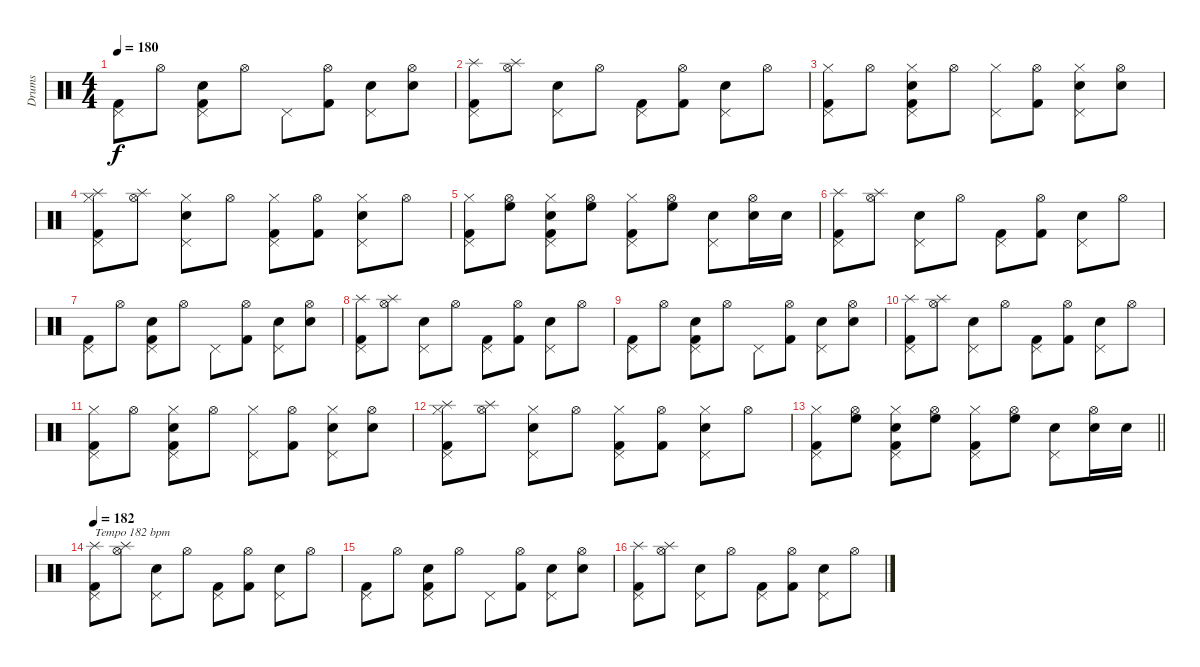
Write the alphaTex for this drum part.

\track ("Drums" "Drums") {instrument percussion}
\staff {score}
\articulation defaults
\ts (4 4)
\tempo 180
\clef neutral
\ks c
("Pedal Hi-Hat (hit)" "Kick (hit) 2").8{dy f} "Hi-Hat (open)".8 ("Pedal Hi-Hat (hit)" "Snare (hit) 2" "Kick (hit) 2").8 "Hi-Hat (open)".8 "Pedal Hi-Hat (hit)".8 ("Hi-Hat (open)" "Kick (hit) 2").8 ("Pedal Hi-Hat (hit)" "Snare (hit) 2").8 ("Hi-Hat (open)" "Snare (hit) 2").8 |
("Pedal Hi-Hat (hit)" "Splash (hit)" "Kick (hit) 2").8 ("Hi-Hat (open)" "Splash (hit)").8 ("Pedal Hi-Hat (hit)" "Snare (hit) 2").8 "Hi-Hat (open)".8 ("Pedal Hi-Hat (hit)" "Kick (hit) 2").8 ("Hi-Hat (open)" "Kick (hit) 2").8 ("Pedal Hi-Hat (hit)" "Snare (hit) 2").8 "Hi-Hat (open)".8 |
("Pedal Hi-Hat (hit)" "Hi-Hat (closed)" "Kick (hit) 2").8 "Hi-Hat (open)".8 ("Pedal Hi-Hat (hit)" "Hi-Hat (closed)" "Snare (hit) 2" "Kick (hit) 2").8 "Hi-Hat (open)".8 ("Pedal Hi-Hat (hit)" "Hi-Hat (closed)").8 ("Hi-Hat (open)" "Kick (hit) 2").8 ("Pedal Hi-Hat (hit)" "Hi-Hat (closed)" "Snare (hit) 2").8 ("Hi-Hat (open)" "Snare (hit) 2").8 |
("Pedal Hi-Hat (hit)" "Hi-Hat (closed)" "Splash (hit)" "Kick (hit) 2").8 ("Hi-Hat (open)" "Splash (hit)").8 ("Pedal Hi-Hat (hit)" "Hi-Hat (closed)" "Snare (hit) 2").8 "Hi-Hat (open)".8 ("Pedal Hi-Hat (hit)" "Hi-Hat (closed)" "Kick (hit) 2").8 ("Hi-Hat (open)" "Kick (hit) 2").8 ("Pedal Hi-Hat (hit)" "Hi-Hat (closed)" "Snare (hit) 2").8 "Hi-Hat (open)".8 |
("Pedal Hi-Hat (hit)" "Hi-Hat (closed)" "Kick (hit) 2").8 ("Hi-Hat (open)" "High Floor Tom (hit)").8 ("Pedal Hi-Hat (hit)" "Hi-Hat (closed)" "Snare (hit) 2" "Kick (hit) 2").8 ("Hi-Hat (open)" "High Floor Tom (hit)").8 ("Pedal Hi-Hat (hit)" "Hi-Hat (closed)" "Kick (hit) 2").8 ("Hi-Hat (open)" "High Floor Tom (hit)").8 ("Pedal Hi-Hat (hit)" "Snare (hit) 2").8 ("Hi-Hat (open)" "Snare (hit) 2").16 "Snare (hit) 2".16 |
("Pedal Hi-Hat (hit)" "Splash (hit)" "Kick (hit) 2").8 ("Hi-Hat (open)" "Splash (hit)").8 ("Pedal Hi-Hat (hit)" "Snare (hit) 2").8 "Hi-Hat (open)".8 ("Pedal Hi-Hat (hit)" "Kick (hit) 2").8 ("Hi-Hat (open)" "Kick (hit) 2").8 ("Pedal Hi-Hat (hit)" "Snare (hit) 2").8 "Hi-Hat (open)".8 |
("Pedal Hi-Hat (hit)" "Kick (hit) 2").8 "Hi-Hat (open)".8 ("Pedal Hi-Hat (hit)" "Snare (hit) 2" "Kick (hit) 2").8 "Hi-Hat (open)".8 "Pedal Hi-Hat (hit)".8 ("Hi-Hat (open)" "Kick (hit) 2").8 ("Pedal Hi-Hat (hit)" "Snare (hit) 2").8 ("Hi-Hat (open)" "Snare (hit) 2").8 |
("Pedal Hi-Hat (hit)" "Splash (hit)" "Kick (hit) 2").8 ("Hi-Hat (open)" "Splash (hit)").8 ("Pedal Hi-Hat (hit)" "Snare (hit) 2").8 "Hi-Hat (open)".8 ("Pedal Hi-Hat (hit)" "Kick (hit) 2").8 ("Hi-Hat (open)" "Kick (hit) 2").8 ("Pedal Hi-Hat (hit)" "Snare (hit) 2").8 "Hi-Hat (open)".8 |
("Pedal Hi-Hat (hit)" "Kick (hit) 2").8 "Hi-Hat (open)".8 ("Pedal Hi-Hat (hit)" "Snare (hit) 2" "Kick (hit) 2").8 "Hi-Hat (open)".8 "Pedal Hi-Hat (hit)".8 ("Hi-Hat (open)" "Kick (hit) 2").8 ("Pedal Hi-Hat (hit)" "Snare (hit) 2").8 ("Hi-Hat (open)" "Snare (hit) 2").8 |
("Pedal Hi-Hat (hit)" "Splash (hit)" "Kick (hit) 2").8 ("Hi-Hat (open)" "Splash (hit)").8 ("Pedal Hi-Hat (hit)" "Snare (hit) 2").8 "Hi-Hat (open)".8 ("Pedal Hi-Hat (hit)" "Kick (hit) 2").8 ("Hi-Hat (open)" "Kick (hit) 2").8 ("Pedal Hi-Hat (hit)" "Snare (hit) 2").8 "Hi-Hat (open)".8 |
("Pedal Hi-Hat (hit)" "Hi-Hat (closed)" "Kick (hit) 2").8 "Hi-Hat (open)".8 ("Pedal Hi-Hat (hit)" "Hi-Hat (closed)" "Snare (hit) 2" "Kick (hit) 2").8 "Hi-Hat (open)".8 ("Pedal Hi-Hat (hit)" "Hi-Hat (closed)").8 ("Hi-Hat (open)" "Kick (hit) 2").8 ("Pedal Hi-Hat (hit)" "Hi-Hat (closed)" "Snare (hit) 2").8 ("Hi-Hat (open)" "Snare (hit) 2").8 |
("Pedal Hi-Hat (hit)" "Hi-Hat (closed)" "Splash (hit)" "Kick (hit) 2").8 ("Hi-Hat (open)" "Splash (hit)").8 ("Pedal Hi-Hat (hit)" "Hi-Hat (closed)" "Snare (hit) 2").8 "Hi-Hat (open)".8 ("Pedal Hi-Hat (hit)" "Hi-Hat (closed)" "Kick (hit) 2").8 ("Hi-Hat (open)" "Kick (hit) 2").8 ("Pedal Hi-Hat (hit)" "Hi-Hat (closed)" "Snare (hit) 2").8 "Hi-Hat (open)".8 |
\barLineRight lightlight
("Pedal Hi-Hat (hit)" "Hi-Hat (closed)" "Kick (hit) 2").8 ("Hi-Hat (open)" "High Floor Tom (hit)").8 ("Pedal Hi-Hat (hit)" "Hi-Hat (closed)" "Snare (hit) 2" "Kick (hit) 2").8 ("Hi-Hat (open)" "High Floor Tom (hit)").8 ("Pedal Hi-Hat (hit)" "Hi-Hat (closed)" "Kick (hit) 2").8 ("Hi-Hat (open)" "High Floor Tom (hit)").8 ("Pedal Hi-Hat (hit)" "Snare (hit) 2").8 ("Hi-Hat (open)" "Snare (hit) 2").16 "Snare (hit) 2".16 |
\tempo 182
("Pedal Hi-Hat (hit)" "Splash (hit)" "Kick (hit) 2").8{txt "Tempo 182 bpm"} ("Hi-Hat (open)" "Splash (hit)").8 ("Pedal Hi-Hat (hit)" "Snare (hit) 2").8 "Hi-Hat (open)".8 ("Pedal Hi-Hat (hit)" "Kick (hit) 2").8 ("Hi-Hat (open)" "Kick (hit) 2").8 ("Pedal Hi-Hat (hit)" "Snare (hit) 2").8 "Hi-Hat (open)".8 |
("Pedal Hi-Hat (hit)" "Kick (hit) 2").8 "Hi-Hat (open)".8 ("Pedal Hi-Hat (hit)" "Snare (hit) 2" "Kick (hit) 2").8 "Hi-Hat (open)".8 "Pedal Hi-Hat (hit)".8 ("Hi-Hat (open)" "Kick (hit) 2").8 ("Pedal Hi-Hat (hit)" "Snare (hit) 2").8 ("Hi-Hat (open)" "Snare (hit) 2").8 |
("Pedal Hi-Hat (hit)" "Splash (hit)" "Kick (hit) 2").8 ("Hi-Hat (open)" "Splash (hit)").8 ("Pedal Hi-Hat (hit)" "Snare (hit) 2").8 "Hi-Hat (open)".8 ("Pedal Hi-Hat (hit)" "Kick (hit) 2").8 ("Hi-Hat (open)" "Kick (hit) 2").8 ("Pedal Hi-Hat (hit)" "Snare (hit) 2").8 "Hi-Hat (open)".8
